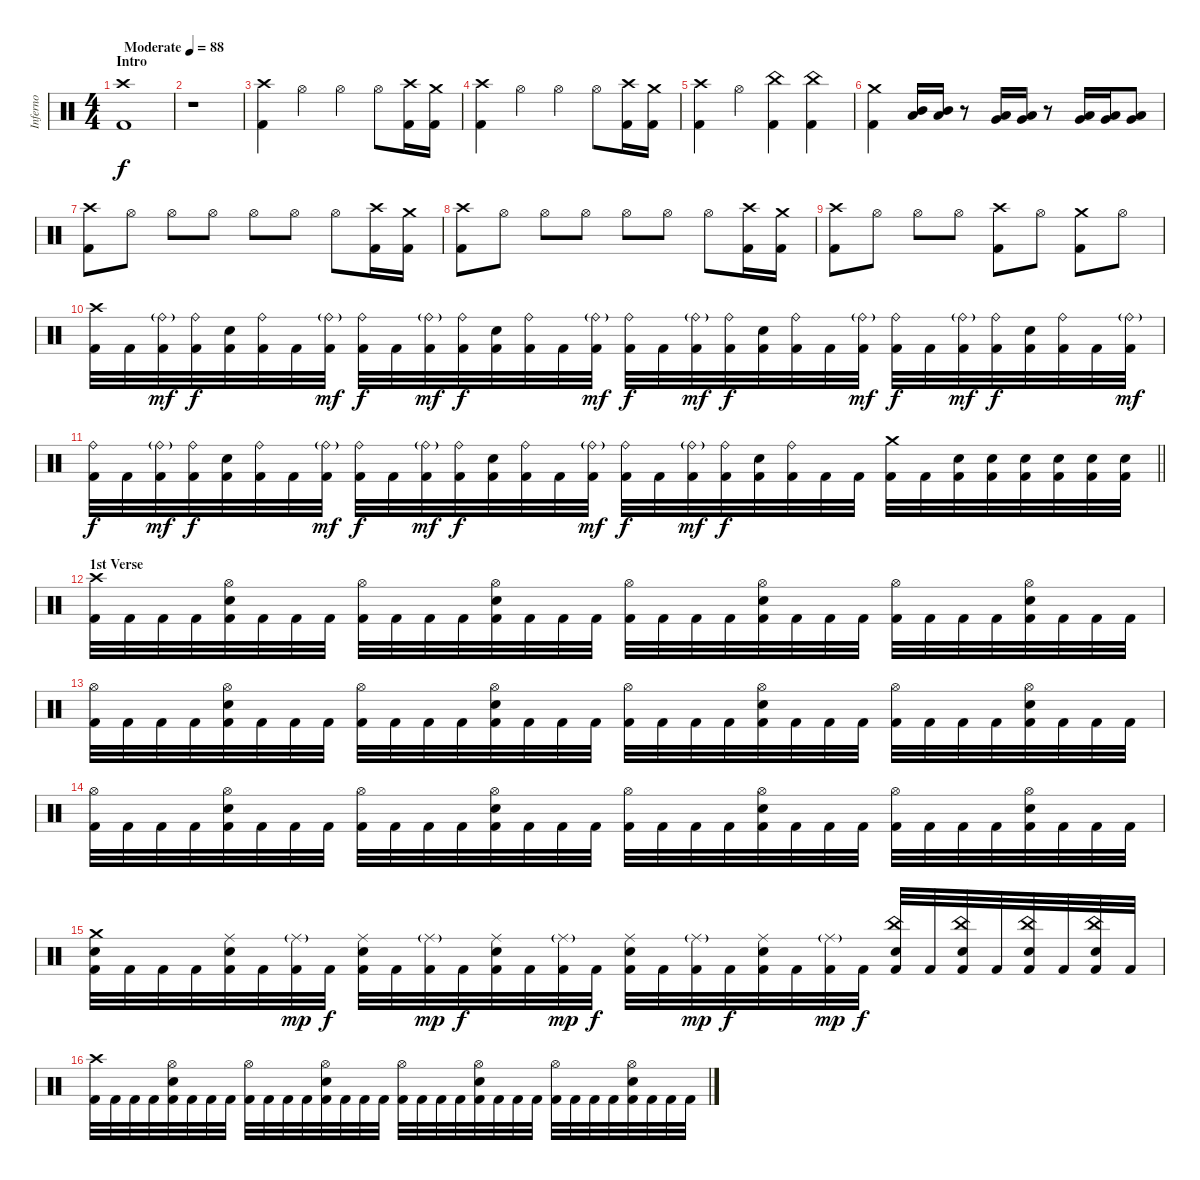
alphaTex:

\track ("Inferno" "Inferno") {instrument percussion}
\staff {score}
\articulation defaults
\ts (4 4)
\section ("" "Intro")
\tempo (88 "Moderate")
\clef neutral
\ks c
("Crash high (hit)" "Kick (hit) 2").1{dy f} |
r.1 |
("Crash high (hit)" "Kick (hit) 2").4 "Hi-Hat (open)".4 "Hi-Hat (open)".4 "Hi-Hat (open)".8 ("Crash high (hit)" "Kick (hit) 2").16 ("Crash medium (hit)" "Kick (hit) 2").16 |
("Crash high (hit)" "Kick (hit) 2").4 "Hi-Hat (open)".4 "Hi-Hat (open)".4 "Hi-Hat (open)".8 ("Crash high (hit)" "Kick (hit) 2").16 ("Crash medium (hit)" "Kick (hit) 2").16 |
("Crash high (hit)" "Kick (hit) 2").4 "Hi-Hat (open)".4 ("China (hit)" "Kick (hit) 2").4 ("China (hit)" "Kick (hit) 2").4 |
("Crash medium (hit)" "Kick (hit) 2").4 ("Mid Tom (hit)" "Low Tom (hit)").16 ("Mid Tom (hit)" "Low Tom (hit)").16 r.8 ("Low Tom (hit)" "Very Low Tom (hit)").16 ("Low Tom (hit)" "Very Low Tom (hit)").16 r.8 ("Very Low Tom (hit)" "Low Floor Tom (hit)").16 ("Very Low Tom (hit)" "Low Floor Tom (hit)").16 ("Very Low Tom (hit)" "Low Floor Tom (hit)").8 |
("Crash high (hit)" "Kick (hit) 2").8 "Hi-Hat (open)".8 "Hi-Hat (open)".8 "Hi-Hat (open)".8 "Hi-Hat (open)".8 "Hi-Hat (open)".8 "Hi-Hat (open)".8 ("Crash high (hit)" "Kick (hit) 2").16 ("Crash medium (hit)" "Kick (hit) 2").16 |
("Crash high (hit)" "Kick (hit) 2").8 "Hi-Hat (open)".8 "Hi-Hat (open)".8 "Hi-Hat (open)".8 "Hi-Hat (open)".8 "Hi-Hat (open)".8 "Hi-Hat (open)".8 ("Crash high (hit)" "Kick (hit) 2").16 ("Crash medium (hit)" "Kick (hit) 2").16 |
("Crash high (hit)" "Kick (hit) 2").8 "Hi-Hat (open)".8 "Hi-Hat (open)".8 "Hi-Hat (open)".8 ("Crash high (hit)" "Kick (hit) 2").8 "Hi-Hat (open)".8 ("Crash medium (hit)" "Kick (hit) 2").8 "Hi-Hat (open)".8 |
("Crash high (hit)" "Kick (hit) 2").32 "Kick (hit) 2".32 ("Ride (bell)"{g} "Kick (hit) 2").32{dy mf} ("Ride (bell)" "Kick (hit) 2").32{dy f} ("Snare (hit) 2" "Kick (hit) 2").32 ("Ride (bell)" "Kick (hit) 2").32 "Kick (hit) 2".32 ("Ride (bell)"{g} "Kick (hit) 2").32{dy mf} ("Ride (bell)" "Kick (hit) 2").32{dy f} "Kick (hit) 2".32 ("Ride (bell)"{g} "Kick (hit) 2").32{dy mf} ("Ride (bell)" "Kick (hit) 2").32{dy f} ("Snare (hit) 2" "Kick (hit) 2").32 ("Ride (bell)" "Kick (hit) 2").32 "Kick (hit) 2".32 ("Ride (bell)"{g} "Kick (hit) 2").32{dy mf} ("Ride (bell)" "Kick (hit) 2").32{dy f} "Kick (hit) 2".32 ("Ride (bell)"{g} "Kick (hit) 2").32{dy mf} ("Ride (bell)" "Kick (hit) 2").32{dy f} ("Snare (hit) 2" "Kick (hit) 2").32 ("Ride (bell)" "Kick (hit) 2").32 "Kick (hit) 2".32 ("Ride (bell)"{g} "Kick (hit) 2").32{dy mf} ("Ride (bell)" "Kick (hit) 2").32{dy f} "Kick (hit) 2".32 ("Ride (bell)"{g} "Kick (hit) 2").32{dy mf} ("Ride (bell)" "Kick (hit) 2").32{dy f} ("Snare (hit) 2" "Kick (hit) 2").32 ("Ride (bell)" "Kick (hit) 2").32 "Kick (hit) 2".32 ("Ride (bell)"{g} "Kick (hit) 2").32{dy mf} |
\barLineRight lightlight
("Ride (bell)" "Kick (hit) 2").32{dy f} "Kick (hit) 2".32 ("Ride (bell)"{g} "Kick (hit) 2").32{dy mf} ("Ride (bell)" "Kick (hit) 2").32{dy f} ("Snare (hit) 2" "Kick (hit) 2").32 ("Ride (bell)" "Kick (hit) 2").32 "Kick (hit) 2".32 ("Ride (bell)"{g} "Kick (hit) 2").32{dy mf} ("Ride (bell)" "Kick (hit) 2").32{dy f} "Kick (hit) 2".32 ("Ride (bell)"{g} "Kick (hit) 2").32{dy mf} ("Ride (bell)" "Kick (hit) 2").32{dy f} ("Snare (hit) 2" "Kick (hit) 2").32 ("Ride (bell)" "Kick (hit) 2").32 "Kick (hit) 2".32 ("Ride (bell)"{g} "Kick (hit) 2").32{dy mf} ("Ride (bell)" "Kick (hit) 2").32{dy f} "Kick (hit) 2".32 ("Ride (bell)"{g} "Kick (hit) 2").32{dy mf} ("Ride (bell)" "Kick (hit) 2").32{dy f} ("Snare (hit) 2" "Kick (hit) 2").32 ("Ride (bell)" "Kick (hit) 2").32 "Kick (hit) 2".32 "Kick (hit) 2".32 ("Crash medium (hit)" "Kick (hit) 2").32 "Kick (hit) 2".32 ("Snare (hit) 2" "Kick (hit) 2").32 ("Snare (hit) 2" "Kick (hit) 2").32 ("Snare (hit) 2" "Kick (hit) 2").32 ("Snare (hit) 2" "Kick (hit) 2").32 ("Snare (hit) 2" "Kick (hit) 2").32 ("Snare (hit) 2" "Kick (hit) 2").32 |
\section ("" "1st Verse")
("Crash high (hit)" "Kick (hit) 2").32 "Kick (hit) 2".32 "Kick (hit) 2".32 "Kick (hit) 2".32 ("Hi-Hat (open)" "Snare (hit) 2" "Kick (hit) 2").32 "Kick (hit) 2".32 "Kick (hit) 2".32 "Kick (hit) 2".32 ("Hi-Hat (open)" "Kick (hit) 2").32 "Kick (hit) 2".32 "Kick (hit) 2".32 "Kick (hit) 2".32 ("Hi-Hat (open)" "Snare (hit) 2" "Kick (hit) 2").32 "Kick (hit) 2".32 "Kick (hit) 2".32 "Kick (hit) 2".32 ("Hi-Hat (open)" "Kick (hit) 2").32 "Kick (hit) 2".32 "Kick (hit) 2".32 "Kick (hit) 2".32 ("Hi-Hat (open)" "Snare (hit) 2" "Kick (hit) 2").32 "Kick (hit) 2".32 "Kick (hit) 2".32 "Kick (hit) 2".32 ("Hi-Hat (open)" "Kick (hit) 2").32 "Kick (hit) 2".32 "Kick (hit) 2".32 "Kick (hit) 2".32 ("Hi-Hat (open)" "Snare (hit) 2" "Kick (hit) 2").32 "Kick (hit) 2".32 "Kick (hit) 2".32 "Kick (hit) 2".32 |
("Hi-Hat (open)" "Kick (hit) 2").32 "Kick (hit) 2".32 "Kick (hit) 2".32 "Kick (hit) 2".32 ("Hi-Hat (open)" "Snare (hit) 2" "Kick (hit) 2").32 "Kick (hit) 2".32 "Kick (hit) 2".32 "Kick (hit) 2".32 ("Hi-Hat (open)" "Kick (hit) 2").32 "Kick (hit) 2".32 "Kick (hit) 2".32 "Kick (hit) 2".32 ("Hi-Hat (open)" "Snare (hit) 2" "Kick (hit) 2").32 "Kick (hit) 2".32 "Kick (hit) 2".32 "Kick (hit) 2".32 ("Hi-Hat (open)" "Kick (hit) 2").32 "Kick (hit) 2".32 "Kick (hit) 2".32 "Kick (hit) 2".32 ("Hi-Hat (open)" "Snare (hit) 2" "Kick (hit) 2").32 "Kick (hit) 2".32 "Kick (hit) 2".32 "Kick (hit) 2".32 ("Hi-Hat (open)" "Kick (hit) 2").32 "Kick (hit) 2".32 "Kick (hit) 2".32 "Kick (hit) 2".32 ("Hi-Hat (open)" "Snare (hit) 2" "Kick (hit) 2").32 "Kick (hit) 2".32 "Kick (hit) 2".32 "Kick (hit) 2".32 |
("Hi-Hat (open)" "Kick (hit) 2").32 "Kick (hit) 2".32 "Kick (hit) 2".32 "Kick (hit) 2".32 ("Hi-Hat (open)" "Snare (hit) 2" "Kick (hit) 2").32 "Kick (hit) 2".32 "Kick (hit) 2".32 "Kick (hit) 2".32 ("Hi-Hat (open)" "Kick (hit) 2").32 "Kick (hit) 2".32 "Kick (hit) 2".32 "Kick (hit) 2".32 ("Hi-Hat (open)" "Snare (hit) 2" "Kick (hit) 2").32 "Kick (hit) 2".32 "Kick (hit) 2".32 "Kick (hit) 2".32 ("Hi-Hat (open)" "Kick (hit) 2").32 "Kick (hit) 2".32 "Kick (hit) 2".32 "Kick (hit) 2".32 ("Hi-Hat (open)" "Snare (hit) 2" "Kick (hit) 2").32 "Kick (hit) 2".32 "Kick (hit) 2".32 "Kick (hit) 2".32 ("Hi-Hat (open)" "Kick (hit) 2").32 "Kick (hit) 2".32 "Kick (hit) 2".32 "Kick (hit) 2".32 ("Hi-Hat (open)" "Snare (hit) 2" "Kick (hit) 2").32 "Kick (hit) 2".32 "Kick (hit) 2".32 "Kick (hit) 2".32 |
("Crash medium (hit)" "Snare (hit) 2" "Kick (hit) 2").32 "Kick (hit) 2".32 "Kick (hit) 2".32 "Kick (hit) 2".32 ("Ride (middle)" "Snare (hit) 2" "Kick (hit) 2").32 "Kick (hit) 2".32 ("Ride (middle)"{g} "Kick (hit) 2").32{dy mp} "Kick (hit) 2".32{dy f} ("Ride (middle)" "Snare (hit) 2" "Kick (hit) 2").32 "Kick (hit) 2".32 ("Ride (middle)"{g} "Kick (hit) 2").32{dy mp} "Kick (hit) 2".32{dy f} ("Ride (middle)" "Snare (hit) 2" "Kick (hit) 2").32 "Kick (hit) 2".32 ("Ride (middle)"{g} "Kick (hit) 2").32{dy mp} "Kick (hit) 2".32{dy f} ("Ride (middle)" "Snare (hit) 2" "Kick (hit) 2").32 "Kick (hit) 2".32 ("Ride (middle)"{g} "Kick (hit) 2").32{dy mp} "Kick (hit) 2".32{dy f} ("Ride (middle)" "Snare (hit) 2" "Kick (hit) 2").32 "Kick (hit) 2".32 ("Ride (middle)"{g} "Kick (hit) 2").32{dy mp} "Kick (hit) 2".32{dy f} ("China (hit)" "Snare (hit) 2" "Kick (hit) 2").32 "Kick (hit) 2".32 ("China (hit)" "Snare (hit) 2" "Kick (hit) 2").32 "Kick (hit) 2".32 ("China (hit)" "Snare (hit) 2" "Kick (hit) 2").32 "Kick (hit) 2".32 ("China (hit)" "Snare (hit) 2" "Kick (hit) 2").32 "Kick (hit) 2".32 |
("Crash high (hit)" "Kick (hit) 2").32 "Kick (hit) 2".32 "Kick (hit) 2".32 "Kick (hit) 2".32 ("Hi-Hat (open)" "Snare (hit) 2" "Kick (hit) 2").32 "Kick (hit) 2".32 "Kick (hit) 2".32 "Kick (hit) 2".32 ("Hi-Hat (open)" "Kick (hit) 2").32 "Kick (hit) 2".32 "Kick (hit) 2".32 "Kick (hit) 2".32 ("Hi-Hat (open)" "Snare (hit) 2" "Kick (hit) 2").32 "Kick (hit) 2".32 "Kick (hit) 2".32 "Kick (hit) 2".32 ("Hi-Hat (open)" "Kick (hit) 2").32 "Kick (hit) 2".32 "Kick (hit) 2".32 "Kick (hit) 2".32 ("Hi-Hat (open)" "Snare (hit) 2" "Kick (hit) 2").32 "Kick (hit) 2".32 "Kick (hit) 2".32 "Kick (hit) 2".32 ("Hi-Hat (open)" "Kick (hit) 2").32 "Kick (hit) 2".32 "Kick (hit) 2".32 "Kick (hit) 2".32 ("Hi-Hat (open)" "Snare (hit) 2" "Kick (hit) 2").32 "Kick (hit) 2".32 "Kick (hit) 2".32 "Kick (hit) 2".32
